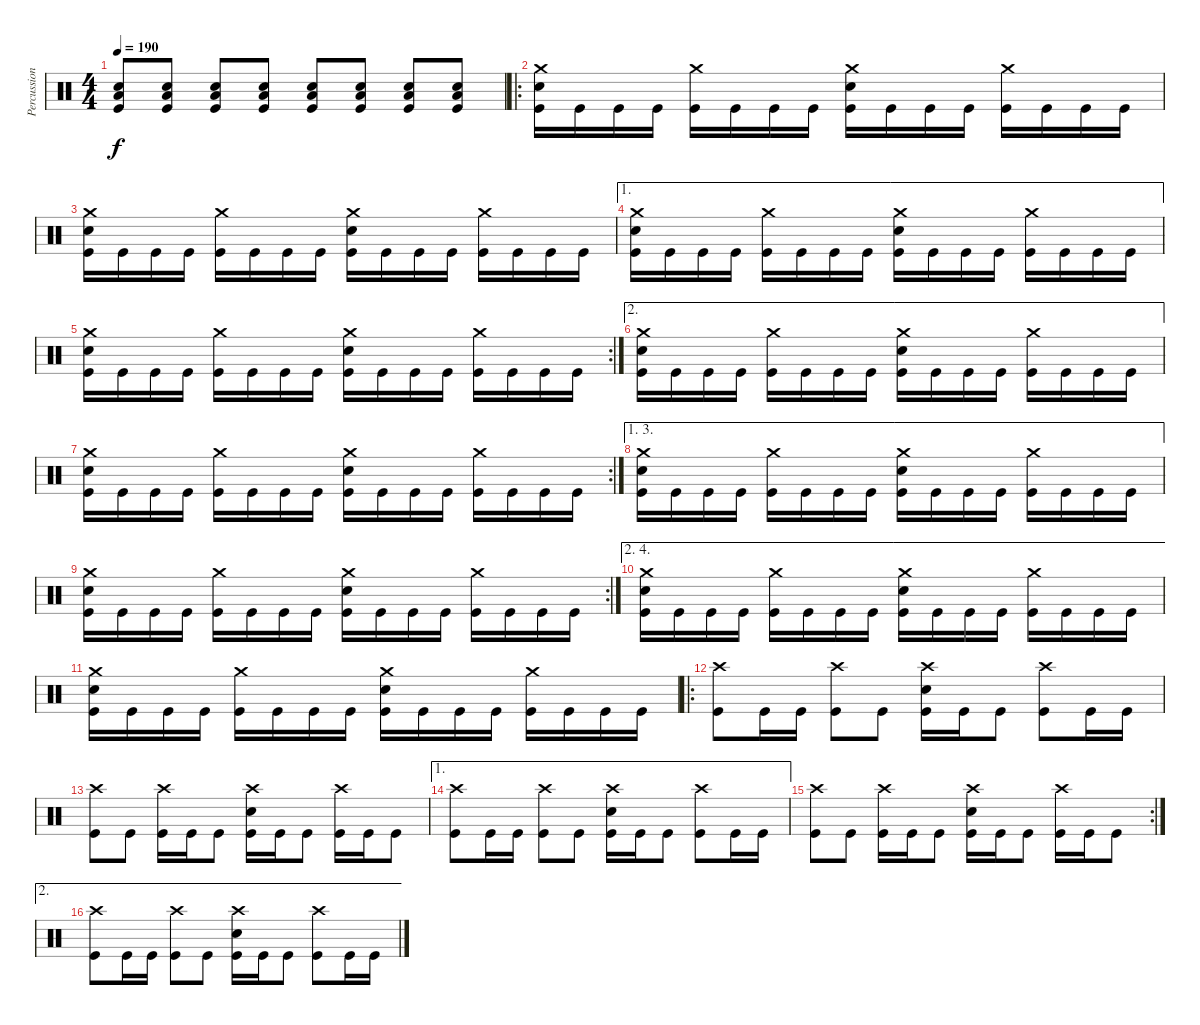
\track ("Percussion" "Percussion") {instrument percussion}
\staff {score}
\articulation defaults
\ts (4 4)
\tempo 190
\clef neutral
\ks c
("Low Tom (hit)" "Electric Snare (hit)" "Kick (hit)").8{dy f} ("Low Tom (hit)" "Electric Snare (hit)" "Kick (hit)").8 ("Low Tom (hit)" "Electric Snare (hit)" "Kick (hit)").8 ("Low Tom (hit)" "Electric Snare (hit)" "Kick (hit)").8 ("Low Tom (hit)" "Electric Snare (hit)" "Kick (hit)").8 ("Low Tom (hit)" "Electric Snare (hit)" "Kick (hit)").8 ("Low Tom (hit)" "Electric Snare (hit)" "Kick (hit)").8 ("Low Tom (hit)" "Electric Snare (hit)" "Kick (hit)").8 |
\ro
("Crash medium (hit)" "Electric Snare (hit)" "Kick (hit)").16 "Kick (hit)".16 "Kick (hit)".16 "Kick (hit)".16 ("Crash medium (hit)" "Kick (hit)").16 "Kick (hit)".16 "Kick (hit)".16 "Kick (hit)".16 ("Crash medium (hit)" "Electric Snare (hit)" "Kick (hit)").16 "Kick (hit)".16 "Kick (hit)".16 "Kick (hit)".16 ("Crash medium (hit)" "Kick (hit)").16 "Kick (hit)".16 "Kick (hit)".16 "Kick (hit)".16 |
("Crash medium (hit)" "Electric Snare (hit)" "Kick (hit)").16 "Kick (hit)".16 "Kick (hit)".16 "Kick (hit)".16 ("Crash medium (hit)" "Kick (hit)").16 "Kick (hit)".16 "Kick (hit)".16 "Kick (hit)".16 ("Crash medium (hit)" "Electric Snare (hit)" "Kick (hit)").16 "Kick (hit)".16 "Kick (hit)".16 "Kick (hit)".16 ("Crash medium (hit)" "Kick (hit)").16 "Kick (hit)".16 "Kick (hit)".16 "Kick (hit)".16 |
\ae 1
("Crash medium (hit)" "Electric Snare (hit)" "Kick (hit)").16 "Kick (hit)".16 "Kick (hit)".16 "Kick (hit)".16 ("Crash medium (hit)" "Kick (hit)").16 "Kick (hit)".16 "Kick (hit)".16 "Kick (hit)".16 ("Crash medium (hit)" "Electric Snare (hit)" "Kick (hit)").16 "Kick (hit)".16 "Kick (hit)".16 "Kick (hit)".16 ("Crash medium (hit)" "Kick (hit)").16 "Kick (hit)".16 "Kick (hit)".16 "Kick (hit)".16 |
\rc 2
("Crash medium (hit)" "Electric Snare (hit)" "Kick (hit)").16 "Kick (hit)".16 "Kick (hit)".16 "Kick (hit)".16 ("Crash medium (hit)" "Kick (hit)").16 "Kick (hit)".16 "Kick (hit)".16 "Kick (hit)".16 ("Crash medium (hit)" "Electric Snare (hit)" "Kick (hit)").16 "Kick (hit)".16 "Kick (hit)".16 "Kick (hit)".16 ("Crash medium (hit)" "Kick (hit)").16 "Kick (hit)".16 "Kick (hit)".16 "Kick (hit)".16 |
\ae 2
("Crash medium (hit)" "Electric Snare (hit)" "Kick (hit)").16 "Kick (hit)".16 "Kick (hit)".16 "Kick (hit)".16 ("Crash medium (hit)" "Kick (hit)").16 "Kick (hit)".16 "Kick (hit)".16 "Kick (hit)".16 ("Crash medium (hit)" "Electric Snare (hit)" "Kick (hit)").16 "Kick (hit)".16 "Kick (hit)".16 "Kick (hit)".16 ("Crash medium (hit)" "Kick (hit)").16 "Kick (hit)".16 "Kick (hit)".16 "Kick (hit)".16 |
\rc 2
("Crash medium (hit)" "Electric Snare (hit)" "Kick (hit)").16 "Kick (hit)".16 "Kick (hit)".16 "Kick (hit)".16 ("Crash medium (hit)" "Kick (hit)").16 "Kick (hit)".16 "Kick (hit)".16 "Kick (hit)".16 ("Crash medium (hit)" "Electric Snare (hit)" "Kick (hit)").16 "Kick (hit)".16 "Kick (hit)".16 "Kick (hit)".16 ("Crash medium (hit)" "Kick (hit)").16 "Kick (hit)".16 "Kick (hit)".16 "Kick (hit)".16 |
\ae (1 3)
("Crash medium (hit)" "Electric Snare (hit)" "Kick (hit)").16 "Kick (hit)".16 "Kick (hit)".16 "Kick (hit)".16 ("Crash medium (hit)" "Kick (hit)").16 "Kick (hit)".16 "Kick (hit)".16 "Kick (hit)".16 ("Crash medium (hit)" "Electric Snare (hit)" "Kick (hit)").16 "Kick (hit)".16 "Kick (hit)".16 "Kick (hit)".16 ("Crash medium (hit)" "Kick (hit)").16 "Kick (hit)".16 "Kick (hit)".16 "Kick (hit)".16 |
\rc 2
("Crash medium (hit)" "Electric Snare (hit)" "Kick (hit)").16 "Kick (hit)".16 "Kick (hit)".16 "Kick (hit)".16 ("Crash medium (hit)" "Kick (hit)").16 "Kick (hit)".16 "Kick (hit)".16 "Kick (hit)".16 ("Crash medium (hit)" "Electric Snare (hit)" "Kick (hit)").16 "Kick (hit)".16 "Kick (hit)".16 "Kick (hit)".16 ("Crash medium (hit)" "Kick (hit)").16 "Kick (hit)".16 "Kick (hit)".16 "Kick (hit)".16 |
\ae (2 4)
("Crash medium (hit)" "Electric Snare (hit)" "Kick (hit)").16 "Kick (hit)".16 "Kick (hit)".16 "Kick (hit)".16 ("Crash medium (hit)" "Kick (hit)").16 "Kick (hit)".16 "Kick (hit)".16 "Kick (hit)".16 ("Crash medium (hit)" "Electric Snare (hit)" "Kick (hit)").16 "Kick (hit)".16 "Kick (hit)".16 "Kick (hit)".16 ("Crash medium (hit)" "Kick (hit)").16 "Kick (hit)".16 "Kick (hit)".16 "Kick (hit)".16 |
("Crash medium (hit)" "Electric Snare (hit)" "Kick (hit)").16 "Kick (hit)".16 "Kick (hit)".16 "Kick (hit)".16 ("Crash medium (hit)" "Kick (hit)").16 "Kick (hit)".16 "Kick (hit)".16 "Kick (hit)".16 ("Crash medium (hit)" "Electric Snare (hit)" "Kick (hit)").16 "Kick (hit)".16 "Kick (hit)".16 "Kick (hit)".16 ("Crash medium (hit)" "Kick (hit)").16 "Kick (hit)".16 "Kick (hit)".16 "Kick (hit)".16 |
\ro
("Crash high (hit)" "Kick (hit)").8 "Kick (hit)".16 "Kick (hit)".16 ("Crash high (hit)" "Kick (hit)").8 "Kick (hit)".8 ("Crash high (hit)" "Electric Snare (hit)" "Kick (hit)").16 "Kick (hit)".16 "Kick (hit)".8 ("Crash high (hit)" "Kick (hit)").8 "Kick (hit)".16 "Kick (hit)".16 |
("Crash high (hit)" "Kick (hit)").8 "Kick (hit)".8 ("Crash high (hit)" "Kick (hit)").16 "Kick (hit)".16 "Kick (hit)".8 ("Crash high (hit)" "Electric Snare (hit)" "Kick (hit)").16 "Kick (hit)".16 "Kick (hit)".8 ("Crash high (hit)" "Kick (hit)").16 "Kick (hit)".16 "Kick (hit)".8 |
\ae 1
("Crash high (hit)" "Kick (hit)").8 "Kick (hit)".16 "Kick (hit)".16 ("Crash high (hit)" "Kick (hit)").8 "Kick (hit)".8 ("Crash high (hit)" "Electric Snare (hit)" "Kick (hit)").16 "Kick (hit)".16 "Kick (hit)".8 ("Crash high (hit)" "Kick (hit)").8 "Kick (hit)".16 "Kick (hit)".16 |
\rc 2
("Crash high (hit)" "Kick (hit)").8 "Kick (hit)".8 ("Crash high (hit)" "Kick (hit)").16 "Kick (hit)".16 "Kick (hit)".8 ("Crash high (hit)" "Electric Snare (hit)" "Kick (hit)").16 "Kick (hit)".16 "Kick (hit)".8 ("Crash high (hit)" "Kick (hit)").16 "Kick (hit)".16 "Kick (hit)".8 |
\ae 2
("Crash high (hit)" "Kick (hit)").8 "Kick (hit)".16 "Kick (hit)".16 ("Crash high (hit)" "Kick (hit)").8 "Kick (hit)".8 ("Crash high (hit)" "Electric Snare (hit)" "Kick (hit)").16 "Kick (hit)".16 "Kick (hit)".8 ("Crash high (hit)" "Kick (hit)").8 "Kick (hit)".16 "Kick (hit)".16
